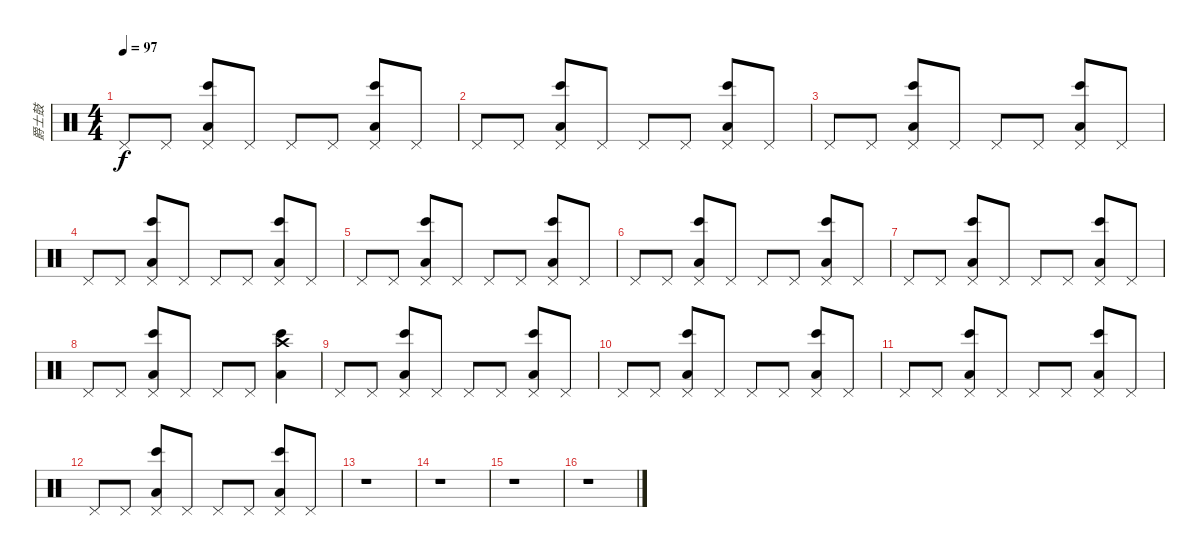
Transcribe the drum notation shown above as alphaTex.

\track ("爵士鼓" "爵士鼓") {instrument percussion}
\staff {score}
\articulation defaults
\ts (4 4)
\tempo 97
\clef neutral
\ks c "Pedal Hi-Hat (hit)".8{dy f volume 7} "Pedal Hi-Hat (hit)".8
("Pedal Hi-Hat (hit)" "Bongo High (hit)" "Low Tom (hit)").8 "Pedal Hi-Hat (hit)".8 "Pedal Hi-Hat (hit)".8 "Pedal Hi-Hat (hit)".8 ("Pedal Hi-Hat (hit)" "Bongo High (hit)" "Low Tom (hit)").8 "Pedal Hi-Hat (hit)".8 |
"Pedal Hi-Hat (hit)".8 "Pedal Hi-Hat (hit)".8 ("Pedal Hi-Hat (hit)" "Bongo High (hit)" "Low Tom (hit)").8 "Pedal Hi-Hat (hit)".8 "Pedal Hi-Hat (hit)".8 "Pedal Hi-Hat (hit)".8 ("Pedal Hi-Hat (hit)" "Bongo High (hit)" "Low Tom (hit)").8 "Pedal Hi-Hat (hit)".8 |
"Pedal Hi-Hat (hit)".8 "Pedal Hi-Hat (hit)".8 ("Pedal Hi-Hat (hit)" "Bongo High (hit)" "Low Tom (hit)").8 "Pedal Hi-Hat (hit)".8 "Pedal Hi-Hat (hit)".8 "Pedal Hi-Hat (hit)".8 ("Pedal Hi-Hat (hit)" "Bongo High (hit)" "Low Tom (hit)").8 "Pedal Hi-Hat (hit)".8 |
"Pedal Hi-Hat (hit)".8 "Pedal Hi-Hat (hit)".8 ("Pedal Hi-Hat (hit)" "Bongo High (hit)" "Low Tom (hit)").8 "Pedal Hi-Hat (hit)".8 "Pedal Hi-Hat (hit)".8 "Pedal Hi-Hat (hit)".8 ("Pedal Hi-Hat (hit)" "Bongo High (hit)" "Low Tom (hit)").8 "Pedal Hi-Hat (hit)".8 |
"Pedal Hi-Hat (hit)".8 "Pedal Hi-Hat (hit)".8 ("Pedal Hi-Hat (hit)" "Bongo High (hit)" "Low Tom (hit)").8 "Pedal Hi-Hat (hit)".8 "Pedal Hi-Hat (hit)".8 "Pedal Hi-Hat (hit)".8 ("Pedal Hi-Hat (hit)" "Bongo High (hit)" "Low Tom (hit)").8 "Pedal Hi-Hat (hit)".8 |
"Pedal Hi-Hat (hit)".8 "Pedal Hi-Hat (hit)".8 ("Pedal Hi-Hat (hit)" "Bongo High (hit)" "Low Tom (hit)").8 "Pedal Hi-Hat (hit)".8 "Pedal Hi-Hat (hit)".8 "Pedal Hi-Hat (hit)".8 ("Pedal Hi-Hat (hit)" "Bongo High (hit)" "Low Tom (hit)").8 "Pedal Hi-Hat (hit)".8 |
"Pedal Hi-Hat (hit)".8 "Pedal Hi-Hat (hit)".8 ("Pedal Hi-Hat (hit)" "Bongo High (hit)" "Low Tom (hit)").8 "Pedal Hi-Hat (hit)".8 "Pedal Hi-Hat (hit)".8 "Pedal Hi-Hat (hit)".8 ("Pedal Hi-Hat (hit)" "Bongo High (hit)" "Low Tom (hit)").8 "Pedal Hi-Hat (hit)".8 |
"Pedal Hi-Hat (hit)".8 "Pedal Hi-Hat (hit)".8 ("Pedal Hi-Hat (hit)" "Bongo High (hit)" "Low Tom (hit)").8 "Pedal Hi-Hat (hit)".8 "Pedal Hi-Hat (hit)".8 "Pedal Hi-Hat (hit)".8 ("Crash high (hit)" "Bongo High (hit)" "Low Tom (hit)").4 |
"Pedal Hi-Hat (hit)".8 "Pedal Hi-Hat (hit)".8 ("Pedal Hi-Hat (hit)" "Bongo High (hit)" "Low Tom (hit)").8 "Pedal Hi-Hat (hit)".8 "Pedal Hi-Hat (hit)".8 "Pedal Hi-Hat (hit)".8 ("Pedal Hi-Hat (hit)" "Bongo High (hit)" "Low Tom (hit)").8 "Pedal Hi-Hat (hit)".8 |
"Pedal Hi-Hat (hit)".8 "Pedal Hi-Hat (hit)".8 ("Pedal Hi-Hat (hit)" "Bongo High (hit)" "Low Tom (hit)").8 "Pedal Hi-Hat (hit)".8 "Pedal Hi-Hat (hit)".8 "Pedal Hi-Hat (hit)".8 ("Pedal Hi-Hat (hit)" "Bongo High (hit)" "Low Tom (hit)").8 "Pedal Hi-Hat (hit)".8 |
"Pedal Hi-Hat (hit)".8 "Pedal Hi-Hat (hit)".8 ("Pedal Hi-Hat (hit)" "Bongo High (hit)" "Low Tom (hit)").8 "Pedal Hi-Hat (hit)".8 "Pedal Hi-Hat (hit)".8{volume 8} "Pedal Hi-Hat (hit)".8 ("Pedal Hi-Hat (hit)" "Bongo High (hit)" "Low Tom (hit)").8 "Pedal Hi-Hat (hit)".8 |
"Pedal Hi-Hat (hit)".8 "Pedal Hi-Hat (hit)".8 ("Pedal Hi-Hat (hit)" "Bongo High (hit)" "Low Tom (hit)").8{volume 5} "Pedal Hi-Hat (hit)".8 "Pedal Hi-Hat (hit)".8 "Pedal Hi-Hat (hit)".8 ("Pedal Hi-Hat (hit)" "Bongo High (hit)" "Low Tom (hit)").8 "Pedal Hi-Hat (hit)".8 |
r.1 |
r.1 |
r.1 |
r.1
